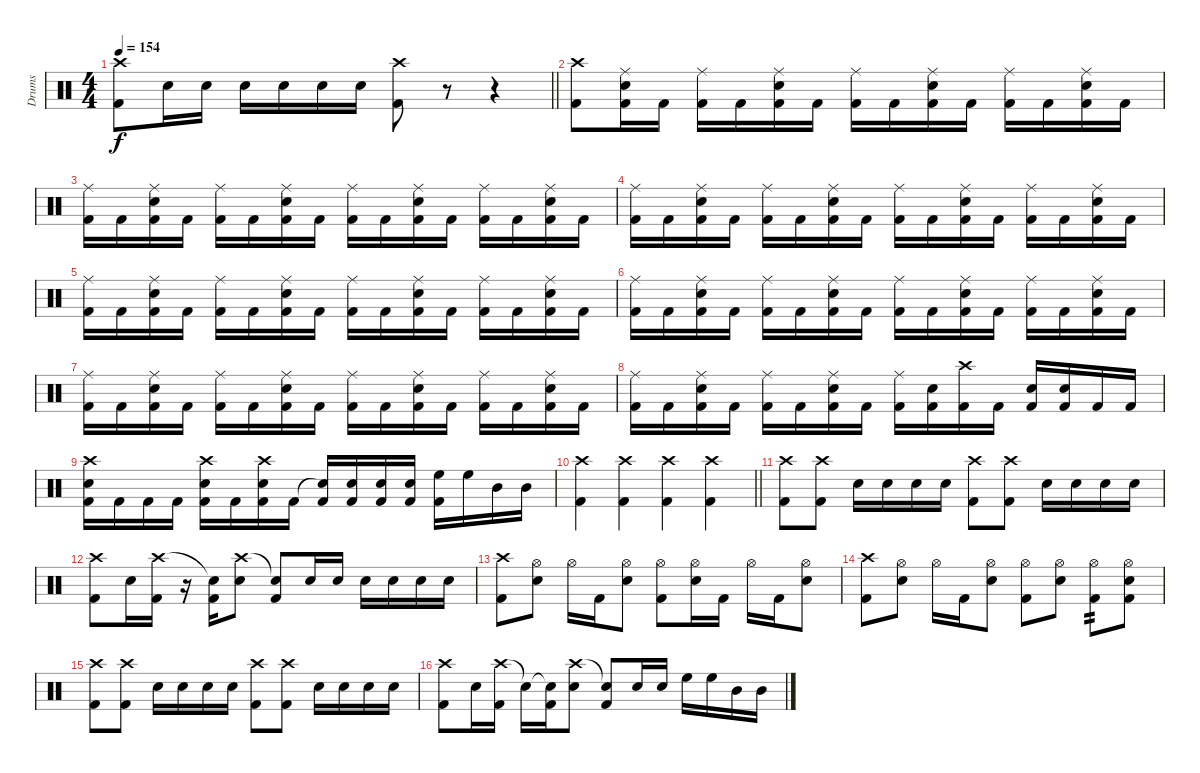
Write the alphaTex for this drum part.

\track ("Drums" "Drums") {instrument percussion}
\staff {score}
\articulation defaults
\ts (4 4)
\tempo 154
\clef neutral
\barLineRight lightlight
\ks c
("Crash high (hit)" "Kick (hit) 2").8{dy f} "Snare (hit) 2".16 "Snare (hit) 2".16 "Snare (hit) 2".16 "Snare (hit) 2".16 "Snare (hit) 2".16 "Snare (hit) 2".16 ("Crash high (hit)" "Kick (hit) 2").8 r.8 r.4 |
("Crash high (hit)" "Kick (hit) 2").8 ("Ride (middle)" "Snare (hit) 2" "Kick (hit) 2").16 "Kick (hit) 2".16 ("Ride (middle)" "Kick (hit) 2").16 "Kick (hit) 2".16 ("Ride (middle)" "Snare (hit) 2" "Kick (hit) 2").16 "Kick (hit) 2".16 ("Ride (middle)" "Kick (hit) 2").16 "Kick (hit) 2".16 ("Ride (middle)" "Snare (hit) 2" "Kick (hit) 2").16 "Kick (hit) 2".16 ("Ride (middle)" "Kick (hit) 2").16 "Kick (hit) 2".16 ("Ride (middle)" "Snare (hit) 2" "Kick (hit) 2").16 "Kick (hit) 2".16 |
("Ride (middle)" "Kick (hit) 2").16 "Kick (hit) 2".16 ("Ride (middle)" "Snare (hit) 2" "Kick (hit) 2").16 "Kick (hit) 2".16 ("Ride (middle)" "Kick (hit) 2").16 "Kick (hit) 2".16 ("Ride (middle)" "Snare (hit) 2" "Kick (hit) 2").16 "Kick (hit) 2".16 ("Ride (middle)" "Kick (hit) 2").16 "Kick (hit) 2".16 ("Ride (middle)" "Snare (hit) 2" "Kick (hit) 2").16 "Kick (hit) 2".16 ("Ride (middle)" "Kick (hit) 2").16 "Kick (hit) 2".16 ("Ride (middle)" "Snare (hit) 2" "Kick (hit) 2").16 "Kick (hit) 2".16 |
("Ride (middle)" "Kick (hit) 2").16 "Kick (hit) 2".16 ("Ride (middle)" "Snare (hit) 2" "Kick (hit) 2").16 "Kick (hit) 2".16 ("Ride (middle)" "Kick (hit) 2").16 "Kick (hit) 2".16 ("Ride (middle)" "Snare (hit) 2" "Kick (hit) 2").16 "Kick (hit) 2".16 ("Ride (middle)" "Kick (hit) 2").16 "Kick (hit) 2".16 ("Ride (middle)" "Snare (hit) 2" "Kick (hit) 2").16 "Kick (hit) 2".16 ("Ride (middle)" "Kick (hit) 2").16 "Kick (hit) 2".16 ("Ride (middle)" "Snare (hit) 2" "Kick (hit) 2").16 "Kick (hit) 2".16 |
("Ride (middle)" "Kick (hit) 2").16 "Kick (hit) 2".16 ("Ride (middle)" "Snare (hit) 2" "Kick (hit) 2").16 "Kick (hit) 2".16 ("Ride (middle)" "Kick (hit) 2").16 "Kick (hit) 2".16 ("Ride (middle)" "Snare (hit) 2" "Kick (hit) 2").16 "Kick (hit) 2".16 ("Ride (middle)" "Kick (hit) 2").16 "Kick (hit) 2".16 ("Ride (middle)" "Snare (hit) 2" "Kick (hit) 2").16 "Kick (hit) 2".16 ("Ride (middle)" "Kick (hit) 2").16 "Kick (hit) 2".16 ("Ride (middle)" "Snare (hit) 2" "Kick (hit) 2").16 "Kick (hit) 2".16 |
("Ride (middle)" "Kick (hit) 2").16 "Kick (hit) 2".16 ("Ride (middle)" "Snare (hit) 2" "Kick (hit) 2").16 "Kick (hit) 2".16 ("Ride (middle)" "Kick (hit) 2").16 "Kick (hit) 2".16 ("Ride (middle)" "Snare (hit) 2" "Kick (hit) 2").16 "Kick (hit) 2".16 ("Ride (middle)" "Kick (hit) 2").16 "Kick (hit) 2".16 ("Ride (middle)" "Snare (hit) 2" "Kick (hit) 2").16 "Kick (hit) 2".16 ("Ride (middle)" "Kick (hit) 2").16 "Kick (hit) 2".16 ("Ride (middle)" "Snare (hit) 2" "Kick (hit) 2").16 "Kick (hit) 2".16 |
("Ride (middle)" "Kick (hit) 2").16 "Kick (hit) 2".16 ("Ride (middle)" "Snare (hit) 2" "Kick (hit) 2").16 "Kick (hit) 2".16 ("Ride (middle)" "Kick (hit) 2").16 "Kick (hit) 2".16 ("Ride (middle)" "Snare (hit) 2" "Kick (hit) 2").16 "Kick (hit) 2".16 ("Ride (middle)" "Kick (hit) 2").16 "Kick (hit) 2".16 ("Ride (middle)" "Snare (hit) 2" "Kick (hit) 2").16 "Kick (hit) 2".16 ("Ride (middle)" "Kick (hit) 2").16 "Kick (hit) 2".16 ("Ride (middle)" "Snare (hit) 2" "Kick (hit) 2").16 "Kick (hit) 2".16 |
("Ride (middle)" "Kick (hit) 2").16 "Kick (hit) 2".16 ("Ride (middle)" "Snare (hit) 2" "Kick (hit) 2").16 "Kick (hit) 2".16 ("Ride (middle)" "Kick (hit) 2").16 "Kick (hit) 2".16 ("Ride (middle)" "Snare (hit) 2" "Kick (hit) 2").16 "Kick (hit) 2".16 ("Ride (middle)" "Kick (hit) 2").16 ("Snare (hit) 2" "Kick (hit) 2").16 ("Crash high (hit)" "Kick (hit) 2").16 "Kick (hit) 2".16 ("Snare (hit) 2" "Kick (hit) 2").16 ("Snare (hit) 2" "Kick (hit) 2").16 "Kick (hit) 2".16 "Kick (hit) 2".16 |
("Crash high (hit)" "Snare (hit) 2" "Kick (hit) 2").16 "Kick (hit) 2".16 "Kick (hit) 2".16 "Kick (hit) 2".16 ("Crash high (hit)" "Snare (hit) 2" "Kick (hit) 2").16 "Kick (hit) 2".16 ("Crash high (hit)" "Snare (hit) 2" "Kick (hit) 2").16 "Kick (hit) 2".16 ("Snare (hit)"{t} "Kick (hit) 2").16 ("Snare (hit) 2" "Kick (hit) 2").16 ("Snare (hit) 2" "Kick (hit) 2").16 ("Snare (hit) 2" "Kick (hit) 2").16 ("High Floor Tom (hit)" "Kick (hit) 2").16 "High Floor Tom (hit)".16 "Mid Tom (hit)".16 "Mid Tom (hit)".16 |
\barLineRight lightlight
("Crash high (hit)" "Kick (hit) 2").4 ("Crash high (hit)" "Kick (hit) 2").4 ("Crash high (hit)" "Kick (hit) 2").4 ("Crash high (hit)" "Kick (hit) 2").4 |
("Crash high (hit)" "Kick (hit) 2").8 ("Crash high (hit)" "Kick (hit) 2").8 "Snare (hit) 2".16 "Snare (hit) 2".16 "Snare (hit) 2".16 "Snare (hit) 2".16 ("Crash high (hit)" "Kick (hit) 2").8 ("Crash high (hit)" "Kick (hit) 2").8 "Snare (hit) 2".16 "Snare (hit) 2".16 "Snare (hit) 2".16 "Snare (hit) 2".16 |
("Crash high (hit)" "Kick (hit) 2").8 "Snare (hit) 2".16 ("Crash high (hit)" "Kick (hit) 2").16 r.16 ("Snare (hit)"{t} "Kick (hit) 2").16 ("Crash high (hit)" "Snare (hit) 2").8 ("Snare (hit)"{t} "Kick (hit) 2").8 "Snare (hit) 2".16 "Snare (hit) 2".16 "Snare (hit) 2".16 "Snare (hit) 2".16 "Snare (hit) 2".16 "Snare (hit) 2".16 |
("Crash high (hit)" "Kick (hit) 2").8 ("Hi-Hat (open)" "Snare (hit) 2").8 "Hi-Hat (open)".16 "Kick (hit) 2".16 ("Hi-Hat (open)" "Snare (hit) 2").8 ("Hi-Hat (open)" "Kick (hit) 2").8 ("Hi-Hat (open)" "Snare (hit) 2").16 "Kick (hit) 2".16 "Hi-Hat (open)".16 "Kick (hit) 2".16 ("Hi-Hat (open)" "Snare (hit) 2").8 |
("Crash high (hit)" "Kick (hit) 2").8 ("Hi-Hat (open)" "Snare (hit) 2").8 "Hi-Hat (open)".16 "Kick (hit) 2".16 ("Hi-Hat (open)" "Snare (hit) 2").8 ("Hi-Hat (open)" "Kick (hit) 2").8 ("Hi-Hat (open)" "Snare (hit) 2").8 ("Hi-Hat (open)" "Kick (hit) 2").8{tp 2} ("Hi-Hat (open)" "Snare (hit) 2" "Kick (hit) 2").8 |
("Crash high (hit)" "Kick (hit) 2").8 ("Crash high (hit)" "Kick (hit) 2").8 "Snare (hit) 2".16 "Snare (hit) 2".16 "Snare (hit) 2".16 "Snare (hit) 2".16 ("Crash high (hit)" "Kick (hit) 2").8 ("Crash high (hit)" "Kick (hit) 2").8 "Snare (hit) 2".16 "Snare (hit) 2".16 "Snare (hit) 2".16 "Snare (hit) 2".16 |
("Crash high (hit)" "Kick (hit) 2").8 "Snare (hit) 2".16 ("Crash high (hit)" "Kick (hit) 2").16 "Snare (hit)"{t}.16 ("Snare (hit)"{t} "Kick (hit) 2").16 ("Crash high (hit)" "Snare (hit) 2").8 ("Snare (hit)"{t} "Kick (hit) 2").8 "Snare (hit) 2".16 "Snare (hit) 2".16 "High Floor Tom (hit)".16 "High Floor Tom (hit)".16 "Mid Tom (hit)".16 "Mid Tom (hit)".16
